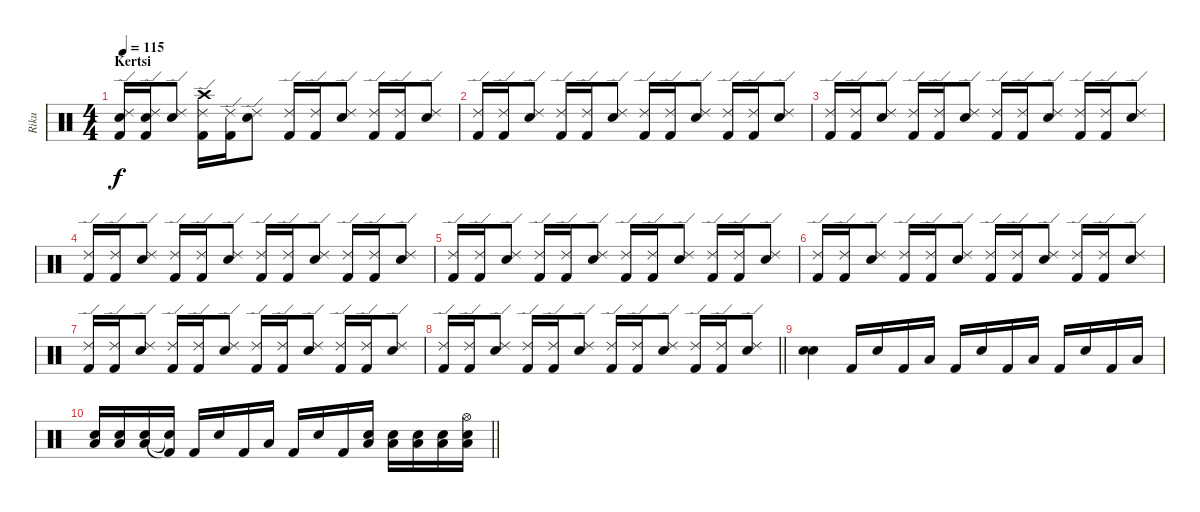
\track ("Riku" "Riku") {instrument percussion}
\staff {score}
\articulation defaults
\ts (4 4)
\section ("" "Kertsi")
\tempo 115
\clef neutral
\ks c
("Snare (hit) 2" "Ride (edge) 2" "Kick (hit) 2").16{dy f} ("Snare (hit) 2" "Ride (edge) 2" "Kick (hit) 2").16 ("Ride (edge) 2" "Snare (hit) 2").8 ("Ride (edge) 2" "Kick (hit) 2" "Crash high (hit)").16 ("Ride (edge) 2" "Kick (hit) 2").16 ("Ride (edge) 2" "Snare (hit) 2").8 ("Ride (edge) 2" "Kick (hit) 2").16 ("Ride (edge) 2" "Kick (hit) 2").16 ("Ride (edge) 2" "Snare (hit) 2").8 ("Ride (edge) 2" "Kick (hit) 2").16 ("Ride (edge) 2" "Kick (hit) 2").16 ("Ride (edge) 2" "Snare (hit) 2").8 |
("Ride (edge) 2" "Kick (hit) 2").16 ("Ride (edge) 2" "Kick (hit) 2").16 ("Ride (edge) 2" "Snare (hit) 2").8 ("Ride (edge) 2" "Kick (hit) 2").16 ("Ride (edge) 2" "Kick (hit) 2").16 ("Ride (edge) 2" "Snare (hit) 2").8 ("Ride (edge) 2" "Kick (hit) 2").16 ("Ride (edge) 2" "Kick (hit) 2").16 ("Ride (edge) 2" "Snare (hit) 2").8 ("Ride (edge) 2" "Kick (hit) 2").16 ("Ride (edge) 2" "Kick (hit) 2").16 ("Ride (edge) 2" "Snare (hit) 2").8 |
("Ride (edge) 2" "Kick (hit) 2").16 ("Ride (edge) 2" "Kick (hit) 2").16 ("Ride (edge) 2" "Snare (hit) 2").8 ("Ride (edge) 2" "Kick (hit) 2").16 ("Ride (edge) 2" "Kick (hit) 2").16 ("Ride (edge) 2" "Snare (hit) 2").8 ("Ride (edge) 2" "Kick (hit) 2").16 ("Ride (edge) 2" "Kick (hit) 2").16 ("Ride (edge) 2" "Snare (hit) 2").8 ("Ride (edge) 2" "Kick (hit) 2").16 ("Ride (edge) 2" "Kick (hit) 2").16 ("Ride (edge) 2" "Snare (hit) 2").8 |
("Ride (edge) 2" "Kick (hit) 2").16 ("Ride (edge) 2" "Kick (hit) 2").16 ("Ride (edge) 2" "Snare (hit) 2").8 ("Ride (edge) 2" "Kick (hit) 2").16 ("Ride (edge) 2" "Kick (hit) 2").16 ("Ride (edge) 2" "Snare (hit) 2").8 ("Ride (edge) 2" "Kick (hit) 2").16 ("Ride (edge) 2" "Kick (hit) 2").16 ("Ride (edge) 2" "Snare (hit) 2").8 ("Ride (edge) 2" "Kick (hit) 2").16 ("Ride (edge) 2" "Kick (hit) 2").16 ("Ride (edge) 2" "Snare (hit) 2").8 |
("Ride (edge) 2" "Kick (hit) 2").16 ("Ride (edge) 2" "Kick (hit) 2").16 ("Ride (edge) 2" "Snare (hit) 2").8 ("Ride (edge) 2" "Kick (hit) 2").16 ("Ride (edge) 2" "Kick (hit) 2").16 ("Ride (edge) 2" "Snare (hit) 2").8 ("Ride (edge) 2" "Kick (hit) 2").16 ("Ride (edge) 2" "Kick (hit) 2").16 ("Ride (edge) 2" "Snare (hit) 2").8 ("Ride (edge) 2" "Kick (hit) 2").16 ("Ride (edge) 2" "Kick (hit) 2").16 ("Ride (edge) 2" "Snare (hit) 2").8 |
("Ride (edge) 2" "Kick (hit) 2").16 ("Ride (edge) 2" "Kick (hit) 2").16 ("Ride (edge) 2" "Snare (hit) 2").8 ("Ride (edge) 2" "Kick (hit) 2").16 ("Ride (edge) 2" "Kick (hit) 2").16 ("Ride (edge) 2" "Snare (hit) 2").8 ("Ride (edge) 2" "Kick (hit) 2").16 ("Ride (edge) 2" "Kick (hit) 2").16 ("Ride (edge) 2" "Snare (hit) 2").8 ("Ride (edge) 2" "Kick (hit) 2").16 ("Ride (edge) 2" "Kick (hit) 2").16 ("Ride (edge) 2" "Snare (hit) 2").8 |
("Ride (edge) 2" "Kick (hit) 2").16 ("Ride (edge) 2" "Kick (hit) 2").16 ("Ride (edge) 2" "Snare (hit) 2").8 ("Ride (edge) 2" "Kick (hit) 2").16 ("Ride (edge) 2" "Kick (hit) 2").16 ("Ride (edge) 2" "Snare (hit) 2").8 ("Ride (edge) 2" "Kick (hit) 2").16 ("Ride (edge) 2" "Kick (hit) 2").16 ("Ride (edge) 2" "Snare (hit) 2").8 ("Ride (edge) 2" "Kick (hit) 2").16 ("Ride (edge) 2" "Kick (hit) 2").16 ("Ride (edge) 2" "Snare (hit) 2").8 |
\barLineRight lightlight
("Ride (edge) 2" "Kick (hit) 2").16 ("Ride (edge) 2" "Kick (hit) 2").16 ("Ride (edge) 2" "Snare (hit) 2").8 ("Ride (edge) 2" "Kick (hit) 2").16 ("Ride (edge) 2" "Kick (hit) 2").16 ("Ride (edge) 2" "Snare (hit) 2").8 ("Ride (edge) 2" "Kick (hit) 2").16 ("Ride (edge) 2" "Kick (hit) 2").16 ("Ride (edge) 2" "Snare (hit) 2").8 ("Ride (edge) 2" "Kick (hit) 2").16 ("Ride (edge) 2" "Kick (hit) 2").16 ("Ride (edge) 2" "Snare (hit) 2").8 |
("Electric Snare (hit)" "Snare (hit) 2").4 "Kick (hit) 2".16 "Snare (hit) 2".16 "Kick (hit) 2".16 "Low Tom (hit)".16 "Kick (hit) 2".16 "Snare (hit) 2".16 "Kick (hit) 2".16 "Low Tom (hit)".16 "Kick (hit) 2".16 "Snare (hit) 2".16 "Kick (hit) 2".16 "Low Tom (hit)".16 |
\barLineRight lightlight
("Low Tom (hit)" "Snare (hit) 2").16 ("Low Tom (hit)" "Snare (hit) 2").16 ("Low Tom (hit)" "Snare (hit) 2").16 ("Snare (hit)"{t} "Kick (hit) 2"{t}).16 "Kick (hit) 2".16 "Snare (hit) 2".16 "Kick (hit) 2".16 "Low Tom (hit)".16 "Kick (hit) 2".16 "Snare (hit) 2".16 "Kick (hit) 2".16 ("Snare (hit) 2" "Low Tom (hit)").16 ("Snare (hit) 2" "Low Tom (hit)").16 ("Snare (hit) 2" "Low Tom (hit)").16 ("Snare (hit) 2" "Low Tom (hit)").16 ("Hi-Hat (open)" "Snare (hit) 2" "Low Tom (hit)").16
